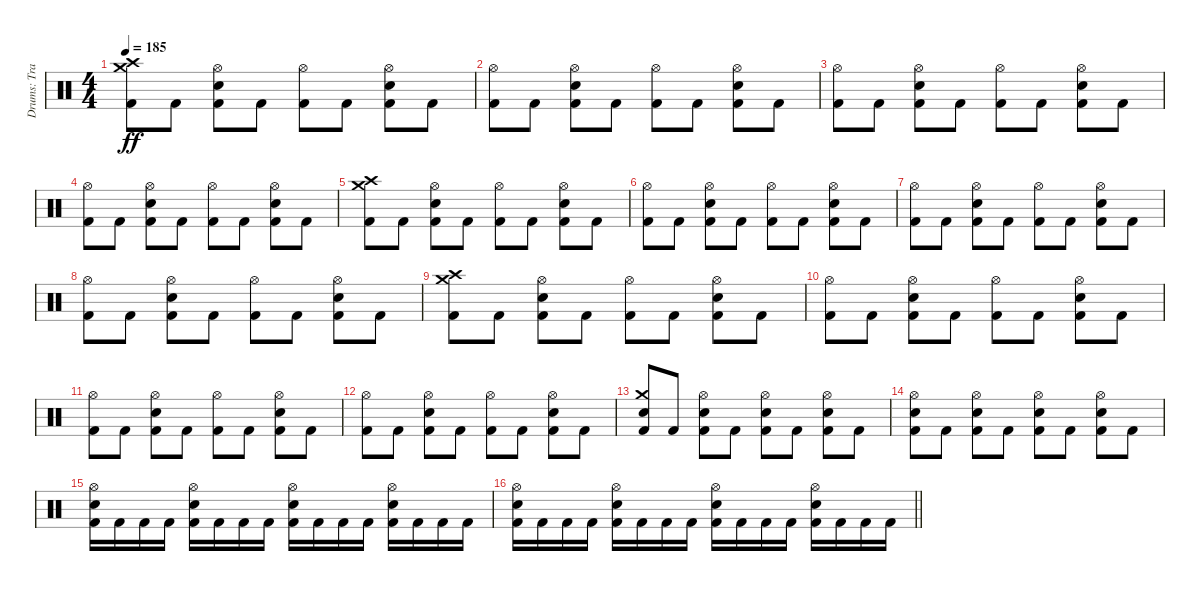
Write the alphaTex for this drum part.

\track ("Drums: Travis Clarke" "Drums: Tra") {instrument percussion}
\staff {score}
\articulation defaults
\ts (4 4)
\tempo 185
\clef neutral
\ks c
("Kick (hit) 2" "Crash high (hit)" "Crash medium (hit)").8{dy ff} "Kick (hit) 2".8 ("Kick (hit) 2" "Snare (hit) 2" "Hi-Hat (open)").8 "Kick (hit) 2".8 ("Kick (hit) 2" "Hi-Hat (open)").8 "Kick (hit) 2".8 ("Kick (hit) 2" "Snare (hit) 2" "Hi-Hat (open)").8 "Kick (hit) 2".8 |
("Kick (hit) 2" "Hi-Hat (open)").8 "Kick (hit) 2".8 ("Kick (hit) 2" "Snare (hit) 2" "Hi-Hat (open)").8 "Kick (hit) 2".8 ("Kick (hit) 2" "Hi-Hat (open)").8 "Kick (hit) 2".8 ("Kick (hit) 2" "Snare (hit) 2" "Hi-Hat (open)").8 "Kick (hit) 2".8 |
("Kick (hit) 2" "Hi-Hat (open)").8 "Kick (hit) 2".8 ("Kick (hit) 2" "Snare (hit) 2" "Hi-Hat (open)").8 "Kick (hit) 2".8 ("Kick (hit) 2" "Hi-Hat (open)").8 "Kick (hit) 2".8 ("Kick (hit) 2" "Snare (hit) 2" "Hi-Hat (open)").8 "Kick (hit) 2".8 |
("Kick (hit) 2" "Hi-Hat (open)").8 "Kick (hit) 2".8 ("Kick (hit) 2" "Snare (hit) 2" "Hi-Hat (open)").8 "Kick (hit) 2".8 ("Kick (hit) 2" "Hi-Hat (open)").8 "Kick (hit) 2".8 ("Kick (hit) 2" "Snare (hit) 2" "Hi-Hat (open)").8 "Kick (hit) 2".8 |
("Kick (hit) 2" "Crash high (hit)" "Crash medium (hit)").8 "Kick (hit) 2".8 ("Kick (hit) 2" "Snare (hit) 2" "Hi-Hat (open)").8 "Kick (hit) 2".8 ("Kick (hit) 2" "Hi-Hat (open)").8 "Kick (hit) 2".8 ("Kick (hit) 2" "Snare (hit) 2" "Hi-Hat (open)").8 "Kick (hit) 2".8 |
("Kick (hit) 2" "Hi-Hat (open)").8 "Kick (hit) 2".8 ("Kick (hit) 2" "Snare (hit) 2" "Hi-Hat (open)").8 "Kick (hit) 2".8 ("Kick (hit) 2" "Hi-Hat (open)").8 "Kick (hit) 2".8 ("Kick (hit) 2" "Snare (hit) 2" "Hi-Hat (open)").8 "Kick (hit) 2".8 |
("Kick (hit) 2" "Hi-Hat (open)").8 "Kick (hit) 2".8 ("Kick (hit) 2" "Snare (hit) 2" "Hi-Hat (open)").8 "Kick (hit) 2".8 ("Kick (hit) 2" "Hi-Hat (open)").8 "Kick (hit) 2".8 ("Kick (hit) 2" "Snare (hit) 2" "Hi-Hat (open)").8 "Kick (hit) 2".8 |
("Kick (hit) 2" "Hi-Hat (open)").8 "Kick (hit) 2".8 ("Kick (hit) 2" "Snare (hit) 2" "Hi-Hat (open)").8 "Kick (hit) 2".8 ("Kick (hit) 2" "Hi-Hat (open)").8 "Kick (hit) 2".8 ("Kick (hit) 2" "Snare (hit) 2" "Hi-Hat (open)").8 "Kick (hit) 2".8 |
("Kick (hit) 2" "Crash high (hit)" "Crash medium (hit)").8 "Kick (hit) 2".8 ("Kick (hit) 2" "Snare (hit) 2" "Hi-Hat (open)").8 "Kick (hit) 2".8 ("Kick (hit) 2" "Hi-Hat (open)").8 "Kick (hit) 2".8 ("Kick (hit) 2" "Snare (hit) 2" "Hi-Hat (open)").8 "Kick (hit) 2".8 |
("Kick (hit) 2" "Hi-Hat (open)").8 "Kick (hit) 2".8 ("Kick (hit) 2" "Snare (hit) 2" "Hi-Hat (open)").8 "Kick (hit) 2".8 ("Kick (hit) 2" "Hi-Hat (open)").8 "Kick (hit) 2".8 ("Kick (hit) 2" "Snare (hit) 2" "Hi-Hat (open)").8 "Kick (hit) 2".8 |
("Kick (hit) 2" "Hi-Hat (open)").8 "Kick (hit) 2".8 ("Kick (hit) 2" "Snare (hit) 2" "Hi-Hat (open)").8 "Kick (hit) 2".8 ("Kick (hit) 2" "Hi-Hat (open)").8 "Kick (hit) 2".8 ("Kick (hit) 2" "Snare (hit) 2" "Hi-Hat (open)").8 "Kick (hit) 2".8 |
("Kick (hit) 2" "Hi-Hat (open)").8 "Kick (hit) 2".8 ("Kick (hit) 2" "Snare (hit) 2" "Hi-Hat (open)").8 "Kick (hit) 2".8 ("Kick (hit) 2" "Hi-Hat (open)").8 "Kick (hit) 2".8 ("Kick (hit) 2" "Snare (hit) 2" "Hi-Hat (open)").8 "Kick (hit) 2".8 |
("Kick (hit) 2" "Snare (hit) 2" "Crash medium (hit)").8 "Kick (hit) 2".8 ("Kick (hit) 2" "Snare (hit) 2" "Hi-Hat (open)").8 "Kick (hit) 2".8 ("Kick (hit) 2" "Snare (hit) 2" "Hi-Hat (open)").8 "Kick (hit) 2".8 ("Kick (hit) 2" "Snare (hit) 2" "Hi-Hat (open)").8 "Kick (hit) 2".8 |
("Kick (hit) 2" "Snare (hit) 2" "Hi-Hat (open)").8 "Kick (hit) 2".8 ("Kick (hit) 2" "Snare (hit) 2" "Hi-Hat (open)").8 "Kick (hit) 2".8 ("Kick (hit) 2" "Snare (hit) 2" "Hi-Hat (open)").8 "Kick (hit) 2".8 ("Kick (hit) 2" "Snare (hit) 2" "Hi-Hat (open)").8 "Kick (hit) 2".8 |
("Kick (hit) 2" "Snare (hit) 2" "Hi-Hat (open)").16 "Kick (hit) 2".16 "Kick (hit) 2".16 "Kick (hit) 2".16 ("Kick (hit) 2" "Snare (hit) 2" "Hi-Hat (open)").16 "Kick (hit) 2".16 "Kick (hit) 2".16 "Kick (hit) 2".16 ("Kick (hit) 2" "Snare (hit) 2" "Hi-Hat (open)").16 "Kick (hit) 2".16 "Kick (hit) 2".16 "Kick (hit) 2".16 ("Kick (hit) 2" "Snare (hit) 2" "Hi-Hat (open)").16 "Kick (hit) 2".16 "Kick (hit) 2".16 "Kick (hit) 2".16 |
\barLineRight lightlight
("Kick (hit) 2" "Snare (hit) 2" "Hi-Hat (open)").16 "Kick (hit) 2".16 "Kick (hit) 2".16 "Kick (hit) 2".16 ("Kick (hit) 2" "Snare (hit) 2" "Hi-Hat (open)").16 "Kick (hit) 2".16 "Kick (hit) 2".16 "Kick (hit) 2".16 ("Kick (hit) 2" "Snare (hit) 2" "Hi-Hat (open)").16 "Kick (hit) 2".16 "Kick (hit) 2".16 "Kick (hit) 2".16 ("Kick (hit) 2" "Snare (hit) 2" "Hi-Hat (open)").16 "Kick (hit) 2".16 "Kick (hit) 2".16 "Kick (hit) 2".16
